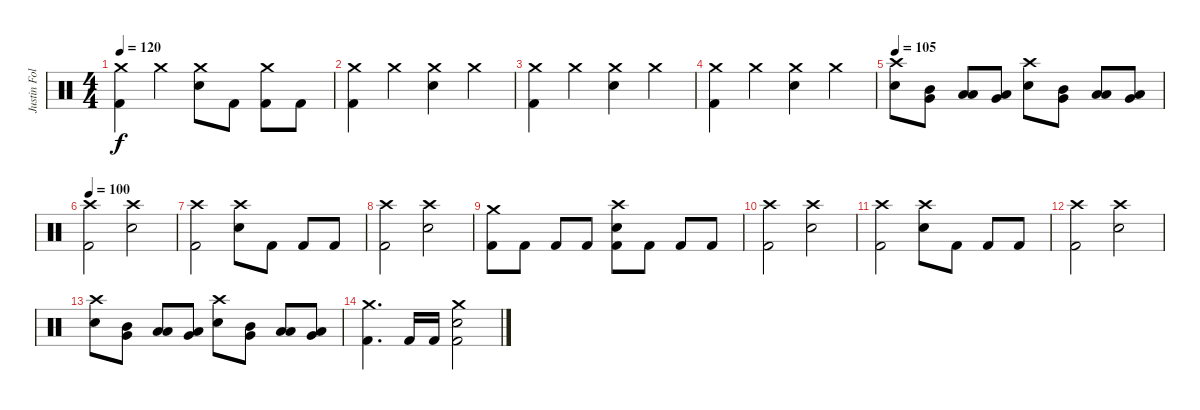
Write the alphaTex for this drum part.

\track ("Justin Foley" "Justin Fol") {instrument percussion}
\staff {score}
\articulation defaults
\ts (4 4)
\tempo 120
\clef neutral
\ks c
("Crash medium (hit)" "Kick (hit) 2").4{dy f} "Crash medium (hit)".4 ("Crash medium (hit)" "Electric Snare (hit)").8 "Kick (hit) 2".8 ("Crash medium (hit)" "Kick (hit) 2").8 "Kick (hit) 2".8 |
("Crash medium (hit)" "Kick (hit) 2").4 "Crash medium (hit)".4 ("Crash medium (hit)" "Electric Snare (hit)").4 "Crash medium (hit)".4 |
("Crash medium (hit)" "Kick (hit) 2").4 "Crash medium (hit)".4 ("Crash medium (hit)" "Electric Snare (hit)").4 "Crash medium (hit)".4 |
("Crash medium (hit)" "Kick (hit) 2").4 "Crash medium (hit)".4 ("Crash medium (hit)" "Electric Snare (hit)").4 "Crash medium (hit)".4 |
\tempo 105
("Crash high (hit)" "Electric Snare (hit)").8 ("Mid Tom (hit)" "Very Low Tom (hit)").8 ("Low Tom (hit)" "Low Floor Tom (hit)").8 ("Very Low Tom (hit)" "Low Floor Tom (hit)").8 ("Crash high (hit)" "Electric Snare (hit)").8 ("Mid Tom (hit)" "Very Low Tom (hit)").8 ("Low Tom (hit)" "Low Floor Tom (hit)").8 ("Very Low Tom (hit)" "Low Floor Tom (hit)").8 |
\tempo 100
("Crash high (hit)" "Kick (hit) 2").2 ("Crash high (hit)" "Electric Snare (hit)").2 |
("Crash high (hit)" "Kick (hit) 2").2 ("Crash high (hit)" "Electric Snare (hit)").8 "Kick (hit) 2".8 "Kick (hit) 2".8 "Kick (hit) 2".8 |
("Crash high (hit)" "Kick (hit) 2").2 ("Crash high (hit)" "Electric Snare (hit)").2 |
("Crash medium (hit)" "Kick (hit) 2").8 "Kick (hit) 2".8 "Kick (hit) 2".8 "Kick (hit) 2".8 ("Crash high (hit)" "Electric Snare (hit)" "Kick (hit) 2").8 "Kick (hit) 2".8 "Kick (hit) 2".8 "Kick (hit) 2".8 |
("Crash high (hit)" "Kick (hit) 2").2 ("Crash high (hit)" "Electric Snare (hit)").2 |
("Crash high (hit)" "Kick (hit) 2").2 ("Crash high (hit)" "Electric Snare (hit)").8 "Kick (hit) 2".8 "Kick (hit) 2".8 "Kick (hit) 2".8 |
("Crash high (hit)" "Kick (hit) 2").2 ("Crash high (hit)" "Electric Snare (hit)").2 |
("Crash high (hit)" "Electric Snare (hit)").8 ("Mid Tom (hit)" "Very Low Tom (hit)").8 ("Low Tom (hit)" "Low Floor Tom (hit)").8 ("Very Low Tom (hit)" "Low Floor Tom (hit)").8 ("Crash high (hit)" "Electric Snare (hit)").8 ("Mid Tom (hit)" "Very Low Tom (hit)").8 ("Low Tom (hit)" "Low Floor Tom (hit)").8 ("Very Low Tom (hit)" "Low Floor Tom (hit)").8 |
("Crash medium (hit)" "Kick (hit) 2").4{d} "Kick (hit) 2".16 "Kick (hit) 2".16 ("Crash medium (hit)" "Electric Snare (hit)" "Kick (hit) 2").2
